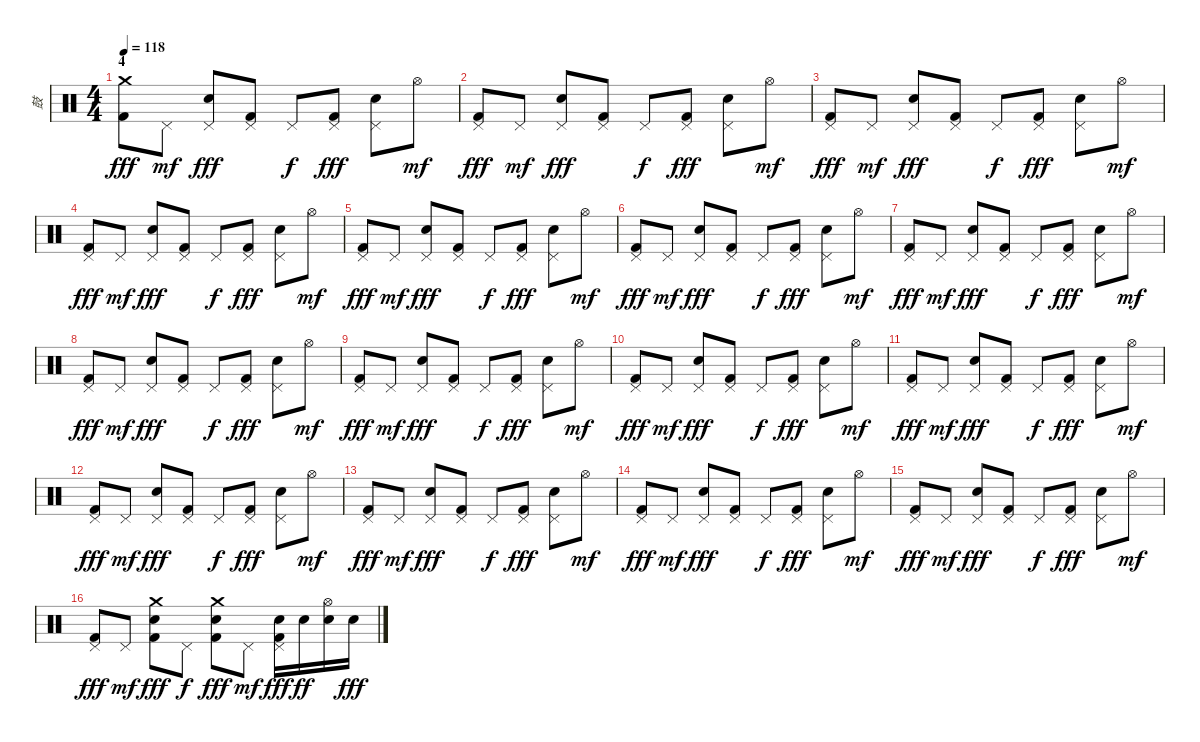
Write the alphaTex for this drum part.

\track ("鼓" "鼓") {instrument percussion}
\staff {score}
\articulation defaults
\ts (4 4)
\section ("" "4")
\tempo 118
\clef neutral
\ks c
("Crash medium (hit)" "Kick (hit) 2").8{dy fff} "Pedal Hi-Hat (hit)".8{dy mf} ("Pedal Hi-Hat (hit)" "Snare (hit) 2").8{dy fff} ("Pedal Hi-Hat (hit)" "Kick (hit) 2").8 "Pedal Hi-Hat (hit)".8{dy f} ("Pedal Hi-Hat (hit)" "Kick (hit) 2").8{dy fff} ("Pedal Hi-Hat (hit)" "Snare (hit) 2").8 "Hi-Hat (open)".8{dy mf} |
("Pedal Hi-Hat (hit)" "Kick (hit) 2").8{dy fff} "Pedal Hi-Hat (hit)".8{dy mf} ("Pedal Hi-Hat (hit)" "Snare (hit) 2").8{dy fff} ("Pedal Hi-Hat (hit)" "Kick (hit) 2").8 "Pedal Hi-Hat (hit)".8{dy f} ("Pedal Hi-Hat (hit)" "Kick (hit) 2").8{dy fff} ("Pedal Hi-Hat (hit)" "Snare (hit) 2").8 "Hi-Hat (open)".8{dy mf} |
("Pedal Hi-Hat (hit)" "Kick (hit) 2").8{dy fff} "Pedal Hi-Hat (hit)".8{dy mf} ("Pedal Hi-Hat (hit)" "Snare (hit) 2").8{dy fff} ("Pedal Hi-Hat (hit)" "Kick (hit) 2").8 "Pedal Hi-Hat (hit)".8{dy f} ("Pedal Hi-Hat (hit)" "Kick (hit) 2").8{dy fff} ("Pedal Hi-Hat (hit)" "Snare (hit) 2").8 "Hi-Hat (open)".8{dy mf} |
("Pedal Hi-Hat (hit)" "Kick (hit) 2").8{dy fff} "Pedal Hi-Hat (hit)".8{dy mf} ("Pedal Hi-Hat (hit)" "Snare (hit) 2").8{dy fff} ("Pedal Hi-Hat (hit)" "Kick (hit) 2").8 "Pedal Hi-Hat (hit)".8{dy f} ("Pedal Hi-Hat (hit)" "Kick (hit) 2").8{dy fff} ("Pedal Hi-Hat (hit)" "Snare (hit) 2").8 "Hi-Hat (open)".8{dy mf} |
("Pedal Hi-Hat (hit)" "Kick (hit) 2").8{dy fff} "Pedal Hi-Hat (hit)".8{dy mf} ("Pedal Hi-Hat (hit)" "Snare (hit) 2").8{dy fff} ("Pedal Hi-Hat (hit)" "Kick (hit) 2").8 "Pedal Hi-Hat (hit)".8{dy f} ("Pedal Hi-Hat (hit)" "Kick (hit) 2").8{dy fff} ("Pedal Hi-Hat (hit)" "Snare (hit) 2").8 "Hi-Hat (open)".8{dy mf} |
("Pedal Hi-Hat (hit)" "Kick (hit) 2").8{dy fff} "Pedal Hi-Hat (hit)".8{dy mf} ("Pedal Hi-Hat (hit)" "Snare (hit) 2").8{dy fff} ("Pedal Hi-Hat (hit)" "Kick (hit) 2").8 "Pedal Hi-Hat (hit)".8{dy f} ("Pedal Hi-Hat (hit)" "Kick (hit) 2").8{dy fff} ("Pedal Hi-Hat (hit)" "Snare (hit) 2").8 "Hi-Hat (open)".8{dy mf} |
("Pedal Hi-Hat (hit)" "Kick (hit) 2").8{dy fff} "Pedal Hi-Hat (hit)".8{dy mf} ("Pedal Hi-Hat (hit)" "Snare (hit) 2").8{dy fff} ("Pedal Hi-Hat (hit)" "Kick (hit) 2").8 "Pedal Hi-Hat (hit)".8{dy f} ("Pedal Hi-Hat (hit)" "Kick (hit) 2").8{dy fff} ("Pedal Hi-Hat (hit)" "Snare (hit) 2").8 "Hi-Hat (open)".8{dy mf} |
("Pedal Hi-Hat (hit)" "Kick (hit) 2").8{dy fff} "Pedal Hi-Hat (hit)".8{dy mf} ("Pedal Hi-Hat (hit)" "Snare (hit) 2").8{dy fff} ("Pedal Hi-Hat (hit)" "Kick (hit) 2").8 "Pedal Hi-Hat (hit)".8{dy f} ("Pedal Hi-Hat (hit)" "Kick (hit) 2").8{dy fff} ("Pedal Hi-Hat (hit)" "Snare (hit) 2").8 "Hi-Hat (open)".8{dy mf} |
("Pedal Hi-Hat (hit)" "Kick (hit) 2").8{dy fff} "Pedal Hi-Hat (hit)".8{dy mf} ("Pedal Hi-Hat (hit)" "Snare (hit) 2").8{dy fff} ("Pedal Hi-Hat (hit)" "Kick (hit) 2").8 "Pedal Hi-Hat (hit)".8{dy f} ("Pedal Hi-Hat (hit)" "Kick (hit) 2").8{dy fff} ("Pedal Hi-Hat (hit)" "Snare (hit) 2").8 "Hi-Hat (open)".8{dy mf} |
("Pedal Hi-Hat (hit)" "Kick (hit) 2").8{dy fff} "Pedal Hi-Hat (hit)".8{dy mf} ("Pedal Hi-Hat (hit)" "Snare (hit) 2").8{dy fff} ("Pedal Hi-Hat (hit)" "Kick (hit) 2").8 "Pedal Hi-Hat (hit)".8{dy f} ("Pedal Hi-Hat (hit)" "Kick (hit) 2").8{dy fff} ("Pedal Hi-Hat (hit)" "Snare (hit) 2").8 "Hi-Hat (open)".8{dy mf} |
("Pedal Hi-Hat (hit)" "Kick (hit) 2").8{dy fff} "Pedal Hi-Hat (hit)".8{dy mf} ("Pedal Hi-Hat (hit)" "Snare (hit) 2").8{dy fff} ("Pedal Hi-Hat (hit)" "Kick (hit) 2").8 "Pedal Hi-Hat (hit)".8{dy f} ("Pedal Hi-Hat (hit)" "Kick (hit) 2").8{dy fff} ("Pedal Hi-Hat (hit)" "Snare (hit) 2").8 "Hi-Hat (open)".8{dy mf} |
("Pedal Hi-Hat (hit)" "Kick (hit) 2").8{dy fff} "Pedal Hi-Hat (hit)".8{dy mf} ("Pedal Hi-Hat (hit)" "Snare (hit) 2").8{dy fff} ("Pedal Hi-Hat (hit)" "Kick (hit) 2").8 "Pedal Hi-Hat (hit)".8{dy f} ("Pedal Hi-Hat (hit)" "Kick (hit) 2").8{dy fff} ("Pedal Hi-Hat (hit)" "Snare (hit) 2").8 "Hi-Hat (open)".8{dy mf} |
("Pedal Hi-Hat (hit)" "Kick (hit) 2").8{dy fff} "Pedal Hi-Hat (hit)".8{dy mf} ("Pedal Hi-Hat (hit)" "Snare (hit) 2").8{dy fff} ("Pedal Hi-Hat (hit)" "Kick (hit) 2").8 "Pedal Hi-Hat (hit)".8{dy f} ("Pedal Hi-Hat (hit)" "Kick (hit) 2").8{dy fff} ("Pedal Hi-Hat (hit)" "Snare (hit) 2").8 "Hi-Hat (open)".8{dy mf} |
("Pedal Hi-Hat (hit)" "Kick (hit) 2").8{dy fff} "Pedal Hi-Hat (hit)".8{dy mf} ("Pedal Hi-Hat (hit)" "Snare (hit) 2").8{dy fff} ("Pedal Hi-Hat (hit)" "Kick (hit) 2").8 "Pedal Hi-Hat (hit)".8{dy f} ("Pedal Hi-Hat (hit)" "Kick (hit) 2").8{dy fff} ("Pedal Hi-Hat (hit)" "Snare (hit) 2").8 "Hi-Hat (open)".8{dy mf} |
("Pedal Hi-Hat (hit)" "Kick (hit) 2").8{dy fff} "Pedal Hi-Hat (hit)".8{dy mf} ("Pedal Hi-Hat (hit)" "Snare (hit) 2").8{dy fff} ("Pedal Hi-Hat (hit)" "Kick (hit) 2").8 "Pedal Hi-Hat (hit)".8{dy f} ("Pedal Hi-Hat (hit)" "Kick (hit) 2").8{dy fff} ("Pedal Hi-Hat (hit)" "Snare (hit) 2").8 "Hi-Hat (open)".8{dy mf} |
("Pedal Hi-Hat (hit)" "Kick (hit) 2").8{dy fff} "Pedal Hi-Hat (hit)".8{dy mf} ("Crash medium (hit)" "Snare (hit) 2" "Kick (hit) 2").8{dy fff} "Pedal Hi-Hat (hit)".8{dy f} ("Crash medium (hit)" "Snare (hit) 2" "Kick (hit) 2").8{dy fff} "Pedal Hi-Hat (hit)".8{dy mf} ("Pedal Hi-Hat (hit)" "Snare (hit) 2" "Kick (hit) 2").16{dy fff} "Snare (hit) 2".16{dy ff} ("Hi-Hat (open)" "Snare (hit) 2").16 "Snare (hit) 2".16{dy fff}
